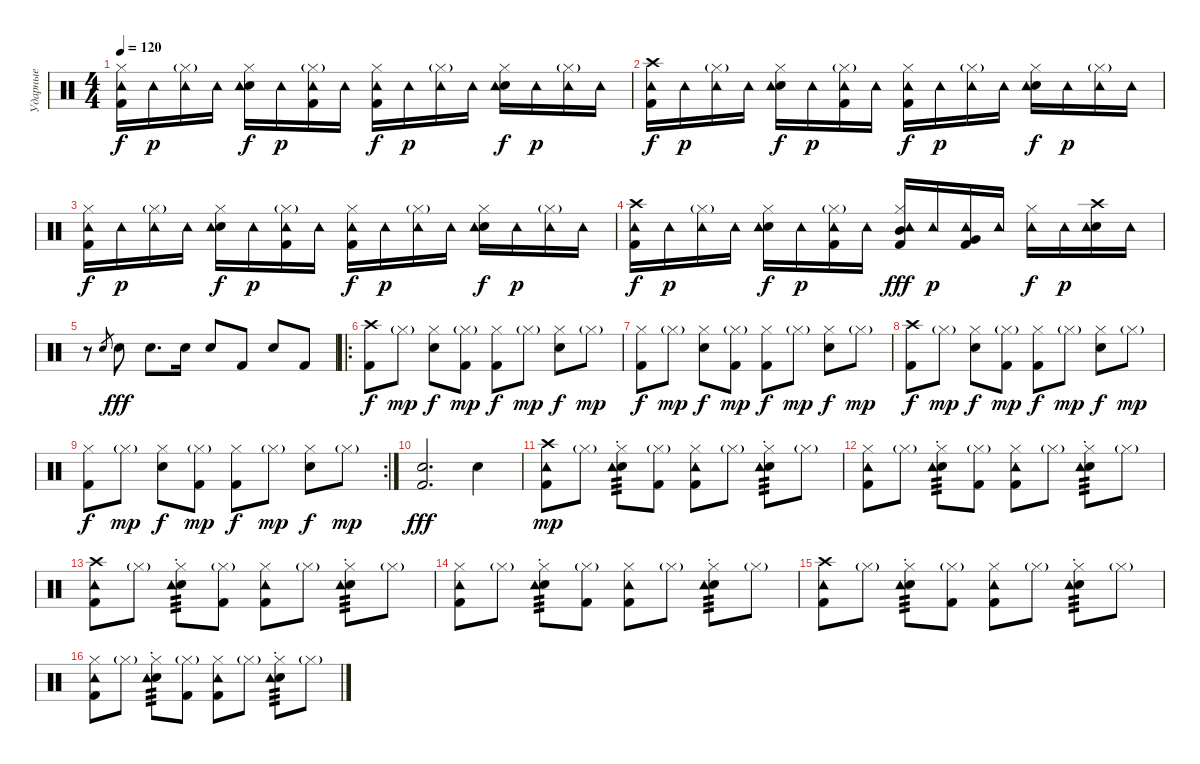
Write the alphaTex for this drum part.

\track ("Ударные" "Ударные") {instrument percussion}
\staff {score}
\articulation defaults
\ts (4 4)
\tempo 120
\clef neutral
\ks c
("Kick (hit) 2" "Hi-Hat (closed)" "Tambourine (hit)").16{dy f} "Tambourine (hit)".16{dy p} ("Hi-Hat (closed)"{g} "Tambourine (hit)").16 "Tambourine (hit)".16 ("Electric Snare (hit)" "Hi-Hat (closed)" "Tambourine (hit)").16{dy f} "Tambourine (hit)".16{dy p} ("Kick (hit) 2" "Hi-Hat (closed)"{g} "Tambourine (hit)").16 "Tambourine (hit)".16 ("Kick (hit) 2" "Hi-Hat (closed)" "Tambourine (hit)").16{dy f} "Tambourine (hit)".16{dy p} ("Hi-Hat (closed)"{g} "Tambourine (hit)").16 "Tambourine (hit)".16 ("Electric Snare (hit)" "Hi-Hat (closed)" "Tambourine (hit)").16{dy f} "Tambourine (hit)".16{dy p} ("Hi-Hat (closed)"{g} "Tambourine (hit)").16 "Tambourine (hit)".16 |
("Kick (hit) 2" "Crash high (hit)" "Tambourine (hit)").16{dy f} "Tambourine (hit)".16{dy p} ("Hi-Hat (closed)"{g} "Tambourine (hit)").16 "Tambourine (hit)".16 ("Electric Snare (hit)" "Hi-Hat (closed)" "Tambourine (hit)").16{dy f} "Tambourine (hit)".16{dy p} ("Kick (hit) 2" "Hi-Hat (closed)"{g} "Tambourine (hit)").16 "Tambourine (hit)".16 ("Kick (hit) 2" "Hi-Hat (closed)" "Tambourine (hit)").16{dy f} "Tambourine (hit)".16{dy p} ("Hi-Hat (closed)"{g} "Tambourine (hit)").16 "Tambourine (hit)".16 ("Electric Snare (hit)" "Hi-Hat (closed)" "Tambourine (hit)").16{dy f} "Tambourine (hit)".16{dy p} ("Hi-Hat (closed)"{g} "Tambourine (hit)").16 "Tambourine (hit)".16 |
("Kick (hit) 2" "Hi-Hat (closed)" "Tambourine (hit)").16{dy f} "Tambourine (hit)".16{dy p} ("Hi-Hat (closed)"{g} "Tambourine (hit)").16 "Tambourine (hit)".16 ("Electric Snare (hit)" "Hi-Hat (closed)" "Tambourine (hit)").16{dy f} "Tambourine (hit)".16{dy p} ("Kick (hit) 2" "Hi-Hat (closed)"{g} "Tambourine (hit)").16 "Tambourine (hit)".16 ("Kick (hit) 2" "Hi-Hat (closed)" "Tambourine (hit)").16{dy f} "Tambourine (hit)".16{dy p} ("Hi-Hat (closed)"{g} "Tambourine (hit)").16 "Tambourine (hit)".16 ("Electric Snare (hit)" "Hi-Hat (closed)" "Tambourine (hit)").16{dy f} "Tambourine (hit)".16{dy p} ("Hi-Hat (closed)"{g} "Tambourine (hit)").16 "Tambourine (hit)".16 |
("Kick (hit) 2" "Crash high (hit)" "Tambourine (hit)").16{dy f} "Tambourine (hit)".16{dy p} ("Hi-Hat (closed)"{g} "Tambourine (hit)").16 "Tambourine (hit)".16 ("Electric Snare (hit)" "Hi-Hat (closed)" "Tambourine (hit)").16{dy f} "Tambourine (hit)".16{dy p} ("Kick (hit) 2" "Hi-Hat (closed)"{g} "Tambourine (hit)").16 "Tambourine (hit)".16 ("Kick (hit) 2" "Hi-Hat (closed)" "Mid Tom (hit)" "Tambourine (hit)").16{dy fff} "Tambourine (hit)".16{dy p} ("Kick (hit) 2" "Very Low Tom (hit)" "Tambourine (hit)").16 "Tambourine (hit)".16 ("Hi-Hat (closed)" "Tambourine (hit)").16{dy f} "Tambourine (hit)".16{dy p} ("Electric Snare (hit)" "Crash high (hit)" "Tambourine (hit)").16 "Tambourine (hit)".16 |
r.8 "Electric Snare (hit)".8{gr} "Electric Snare (hit)".8{dy fff} "Electric Snare (hit)".8{d} "Electric Snare (hit)".16 "Electric Snare (hit)".8 "Kick (hit) 2".8 "Electric Snare (hit)".8 "Kick (hit) 2".8 |
\ro
("Kick (hit) 2" "Crash high (hit)").8{dy f} "Hi-Hat (closed)"{g}.8{dy mp} ("Electric Snare (hit)" "Hi-Hat (closed)").8{dy f} ("Kick (hit) 2" "Hi-Hat (closed)"{g}).8{dy mp} ("Kick (hit) 2" "Hi-Hat (closed)").8{dy f} "Hi-Hat (closed)"{g}.8{dy mp} ("Electric Snare (hit)" "Hi-Hat (closed)").8{dy f} "Hi-Hat (closed)"{g}.8{dy mp} |
("Kick (hit) 2" "Hi-Hat (closed)").8{dy f} "Hi-Hat (closed)"{g}.8{dy mp} ("Electric Snare (hit)" "Hi-Hat (closed)").8{dy f} ("Kick (hit) 2" "Hi-Hat (closed)"{g}).8{dy mp} ("Kick (hit) 2" "Hi-Hat (closed)").8{dy f} "Hi-Hat (closed)"{g}.8{dy mp} ("Electric Snare (hit)" "Hi-Hat (closed)").8{dy f} "Hi-Hat (closed)"{g}.8{dy mp} |
("Kick (hit) 2" "Crash high (hit)").8{dy f} "Hi-Hat (closed)"{g}.8{dy mp} ("Electric Snare (hit)" "Hi-Hat (closed)").8{dy f} ("Kick (hit) 2" "Hi-Hat (closed)"{g}).8{dy mp} ("Kick (hit) 2" "Hi-Hat (closed)").8{dy f} "Hi-Hat (closed)"{g}.8{dy mp} ("Electric Snare (hit)" "Hi-Hat (closed)").8{dy f} "Hi-Hat (closed)"{g}.8{dy mp} |
\rc 2
("Kick (hit) 2" "Hi-Hat (closed)").8{dy f} "Hi-Hat (closed)"{g}.8{dy mp} ("Electric Snare (hit)" "Hi-Hat (closed)").8{dy f} ("Kick (hit) 2" "Hi-Hat (closed)"{g}).8{dy mp} ("Kick (hit) 2" "Hi-Hat (closed)").8{dy f} "Hi-Hat (closed)"{g}.8{dy mp} ("Electric Snare (hit)" "Hi-Hat (closed)").8{dy f} "Hi-Hat (closed)"{g}.8{dy mp} |
("Electric Snare (hit)" "Kick (hit) 2").2{d dy fff} "Electric Snare (hit)".4 |
("Kick (hit) 2" "Crash high (hit)" "Tambourine (hit)").8{dy mp} "Hi-Hat (closed)"{g}.8 ("Electric Snare (hit)" "Hi-Hat (closed)" "Tambourine (hit)"{st}).8{tp 3} ("Kick (hit) 2" "Hi-Hat (closed)"{g}).8 ("Kick (hit) 2" "Hi-Hat (closed)" "Tambourine (hit)").8 "Hi-Hat (closed)"{g}.8 ("Electric Snare (hit)" "Hi-Hat (closed)" "Tambourine (hit)"{st}).8{tp 3} "Hi-Hat (closed)"{g}.8 |
("Kick (hit) 2" "Hi-Hat (closed)" "Tambourine (hit)").8 "Hi-Hat (closed)"{g}.8 ("Electric Snare (hit)" "Hi-Hat (closed)" "Tambourine (hit)"{st}).8{tp 3} ("Kick (hit) 2" "Hi-Hat (closed)"{g}).8 ("Kick (hit) 2" "Hi-Hat (closed)" "Tambourine (hit)").8 "Hi-Hat (closed)"{g}.8 ("Electric Snare (hit)" "Hi-Hat (closed)" "Tambourine (hit)"{st}).8{tp 3} "Hi-Hat (closed)"{g}.8 |
("Kick (hit) 2" "Crash high (hit)" "Tambourine (hit)").8 "Hi-Hat (closed)"{g}.8 ("Electric Snare (hit)" "Hi-Hat (closed)" "Tambourine (hit)"{st}).8{tp 3} ("Kick (hit) 2" "Hi-Hat (closed)"{g}).8 ("Kick (hit) 2" "Hi-Hat (closed)" "Tambourine (hit)").8 "Hi-Hat (closed)"{g}.8 ("Electric Snare (hit)" "Hi-Hat (closed)" "Tambourine (hit)"{st}).8{tp 3} "Hi-Hat (closed)"{g}.8 |
("Kick (hit) 2" "Hi-Hat (closed)" "Tambourine (hit)").8 "Hi-Hat (closed)"{g}.8 ("Electric Snare (hit)" "Hi-Hat (closed)" "Tambourine (hit)"{st}).8{tp 3} ("Kick (hit) 2" "Hi-Hat (closed)"{g}).8 ("Kick (hit) 2" "Hi-Hat (closed)" "Tambourine (hit)").8 "Hi-Hat (closed)"{g}.8 ("Electric Snare (hit)" "Hi-Hat (closed)" "Tambourine (hit)"{st}).8{tp 3} "Hi-Hat (closed)"{g}.8 |
("Kick (hit) 2" "Crash high (hit)" "Tambourine (hit)").8 "Hi-Hat (closed)"{g}.8 ("Electric Snare (hit)" "Hi-Hat (closed)" "Tambourine (hit)"{st}).8{tp 3} ("Kick (hit) 2" "Hi-Hat (closed)"{g}).8 ("Kick (hit) 2" "Hi-Hat (closed)" "Tambourine (hit)").8 "Hi-Hat (closed)"{g}.8 ("Electric Snare (hit)" "Hi-Hat (closed)" "Tambourine (hit)"{st}).8{tp 3} "Hi-Hat (closed)"{g}.8 |
("Kick (hit) 2" "Hi-Hat (closed)" "Tambourine (hit)").8 "Hi-Hat (closed)"{g}.8 ("Electric Snare (hit)" "Hi-Hat (closed)" "Tambourine (hit)"{st}).8{tp 3} ("Kick (hit) 2" "Hi-Hat (closed)"{g}).8 ("Kick (hit) 2" "Hi-Hat (closed)" "Tambourine (hit)").8 "Hi-Hat (closed)"{g}.8 ("Electric Snare (hit)" "Hi-Hat (closed)" "Tambourine (hit)"{st}).8{tp 3} "Hi-Hat (closed)"{g}.8
